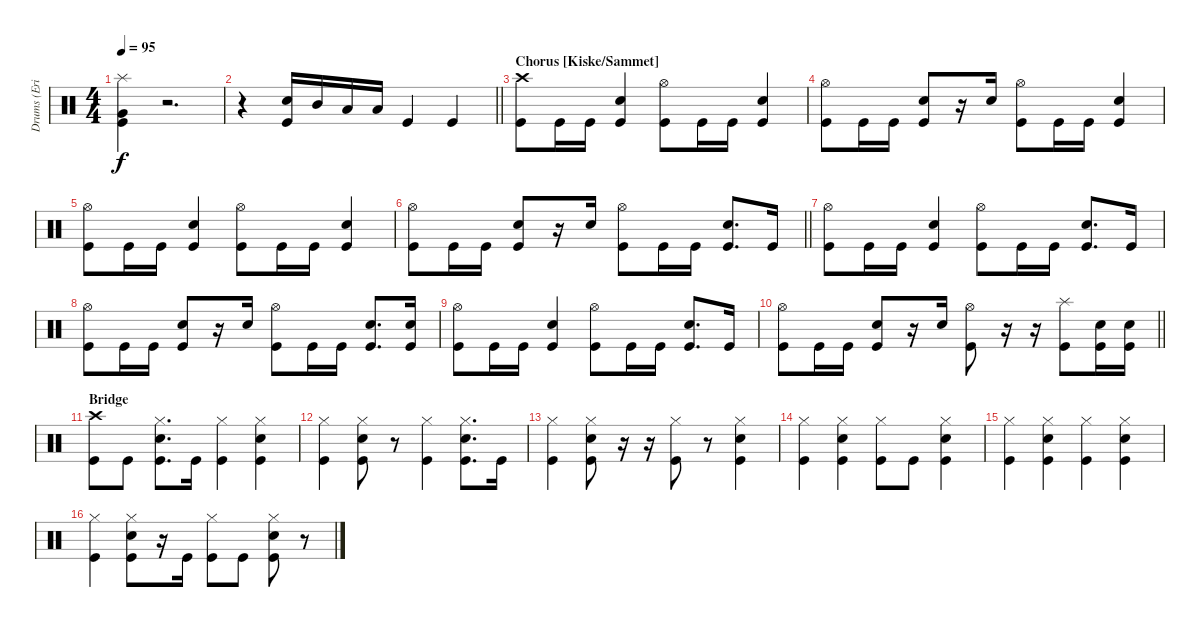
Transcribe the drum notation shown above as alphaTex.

\track ("Drums (Eric Singer)" "Drums (Eri") {instrument percussion}
\staff {score}
\articulation defaults
\ts (4 4)
\tempo 95
\clef neutral
\ks c
("Very Low Tom (hit)" "Kick (hit)" "Splash (hit)").4{dy f} r.2{d} |
\barLineRight lightlight
r.4 ("Snare (hit) 2" "Kick (hit)").16 "Mid Tom (hit)".16 "Low Tom (hit)".16 "Low Tom (hit)".16 "Kick (hit)".4 "Kick (hit)".4 |
\section ("" "Chorus [Kiske/Sammet]")
("Crash high (hit)" "Kick (hit)").8 "Kick (hit)".16 "Kick (hit)".16 ("Snare (hit) 2" "Kick (hit)").4 ("Kick (hit)" "Hi-Hat (open)").8 "Kick (hit)".16 "Kick (hit)".16 ("Snare (hit) 2" "Kick (hit)").4 |
("Kick (hit)" "Hi-Hat (open)").8 "Kick (hit)".16 "Kick (hit)".16 ("Snare (hit) 2" "Kick (hit)").8 r.16 "Snare (hit) 2".16 ("Kick (hit)" "Hi-Hat (open)").8 "Kick (hit)".16 "Kick (hit)".16 ("Snare (hit) 2" "Kick (hit)").4 |
("Kick (hit)" "Hi-Hat (open)").8 "Kick (hit)".16 "Kick (hit)".16 ("Snare (hit) 2" "Kick (hit)").4 ("Kick (hit)" "Hi-Hat (open)").8 "Kick (hit)".16 "Kick (hit)".16 ("Snare (hit) 2" "Kick (hit)").4 |
\barLineRight lightlight
("Kick (hit)" "Hi-Hat (open)").8 "Kick (hit)".16 "Kick (hit)".16 ("Snare (hit) 2" "Kick (hit)").8 r.16 "Snare (hit) 2".16 ("Kick (hit)" "Hi-Hat (open)").8 "Kick (hit)".16 "Kick (hit)".16 ("Snare (hit) 2" "Kick (hit)").8{d} "Kick (hit)".16 |
("Kick (hit)" "Hi-Hat (open)").8 "Kick (hit)".16 "Kick (hit)".16 ("Snare (hit) 2" "Kick (hit)").4 ("Kick (hit)" "Hi-Hat (open)").8 "Kick (hit)".16 "Kick (hit)".16 ("Snare (hit) 2" "Kick (hit)").8{d} "Kick (hit)".16 |
("Kick (hit)" "Hi-Hat (open)").8 "Kick (hit)".16 "Kick (hit)".16 ("Snare (hit) 2" "Kick (hit)").8 r.16 "Snare (hit) 2".16 ("Kick (hit)" "Hi-Hat (open)").8 "Kick (hit)".16 "Kick (hit)".16 ("Snare (hit) 2" "Kick (hit)").8{d} ("Snare (hit) 2" "Kick (hit)").16 |
("Kick (hit)" "Hi-Hat (open)").8 "Kick (hit)".16 "Kick (hit)".16 ("Snare (hit) 2" "Kick (hit)").4 ("Kick (hit)" "Hi-Hat (open)").8 "Kick (hit)".16 "Kick (hit)".16 ("Snare (hit) 2" "Kick (hit)").8{d} "Kick (hit)".16 |
\barLineRight lightlight
("Kick (hit)" "Hi-Hat (open)").8 "Kick (hit)".16 "Kick (hit)".16 ("Snare (hit) 2" "Kick (hit)").8 r.16 "Snare (hit) 2".16 ("Kick (hit)" "Hi-Hat (open)").8 r.16 r.16 ("Kick (hit)" "Splash (hit)").8 ("Snare (hit) 2" "Kick (hit)").16 ("Snare (hit) 2" "Kick (hit)").16 |
\section ("" "Bridge")
("Crash high (hit)" "Kick (hit)").8 "Kick (hit)".8 ("Snare (hit) 2" "Kick (hit)" "Hi-Hat (closed)").8{d} "Kick (hit)".16 ("Kick (hit)" "Hi-Hat (closed)").4 ("Snare (hit) 2" "Kick (hit)" "Hi-Hat (closed)").4 |
("Kick (hit)" "Hi-Hat (closed)").4 ("Snare (hit) 2" "Kick (hit)" "Hi-Hat (closed)").8 r.8 ("Kick (hit)" "Hi-Hat (closed)").4 ("Snare (hit) 2" "Kick (hit)" "Hi-Hat (closed)").8{d} "Kick (hit)".16 |
("Kick (hit)" "Hi-Hat (closed)").4 ("Snare (hit) 2" "Kick (hit)" "Hi-Hat (closed)").8 r.16 r.16 ("Kick (hit)" "Hi-Hat (closed)").8 r.8 ("Snare (hit) 2" "Kick (hit)" "Hi-Hat (closed)").4 |
("Kick (hit)" "Hi-Hat (closed)").4 ("Snare (hit) 2" "Kick (hit)" "Hi-Hat (closed)").4 ("Kick (hit)" "Hi-Hat (closed)").8 "Kick (hit)".8 ("Snare (hit) 2" "Kick (hit)" "Hi-Hat (closed)").4 |
("Kick (hit)" "Hi-Hat (closed)").4 ("Snare (hit) 2" "Kick (hit)" "Hi-Hat (closed)").4 ("Kick (hit)" "Hi-Hat (closed)").4 ("Snare (hit) 2" "Kick (hit)" "Hi-Hat (closed)").4 |
("Kick (hit)" "Hi-Hat (closed)").4 ("Snare (hit) 2" "Kick (hit)" "Hi-Hat (closed)").8 r.16 "Kick (hit)".16 ("Kick (hit)" "Hi-Hat (closed)").8 "Kick (hit)".8 ("Snare (hit) 2" "Kick (hit)" "Hi-Hat (closed)").8 r.8
